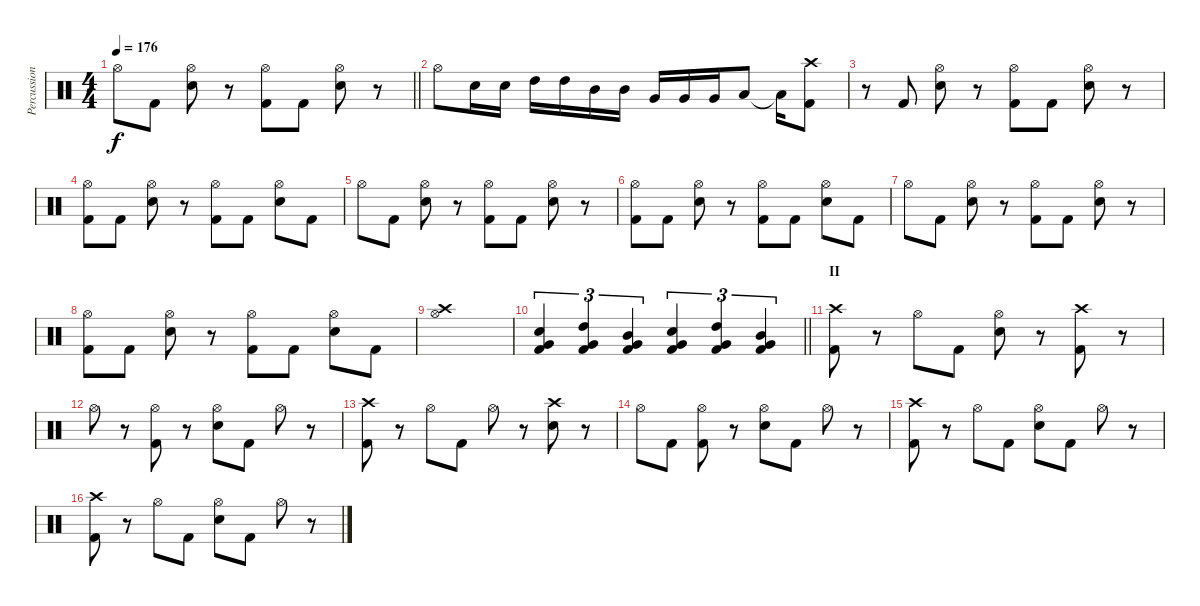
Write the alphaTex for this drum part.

\track ("Percussion" "Percussion") {instrument percussion}
\staff {score}
\articulation defaults
\ts (4 4)
\tempo 176
\clef neutral
\barLineRight lightlight
\ks c "Hi-Hat (open)".8{dy f} "Kick (hit) 2".8
("Hi-Hat (open)" "Electric Snare (hit)").8 r.8 ("Hi-Hat (open)" "Kick (hit) 2").8 "Kick (hit) 2".8 ("Hi-Hat (open)" "Electric Snare (hit)").8 r.8 |
"Hi-Hat (open)".8 "Electric Snare (hit)".16 "Electric Snare (hit)".16 "High Tom (hit)".16 "High Tom (hit)".16 "Mid Tom (hit)".16 "Mid Tom (hit)".16 "Very Low Tom (hit)".16 "Very Low Tom (hit)".16 "Very Low Tom (hit)".16 "Low Floor Tom (hit)".8 "Low Floor Tom (hit)"{t}.16 ("Crash high (hit)" "Kick (hit) 2").8 |
r.8 "Kick (hit) 2".8 ("Hi-Hat (open)" "Electric Snare (hit)").8 r.8 ("Hi-Hat (open)" "Kick (hit) 2").8 "Kick (hit) 2".8 ("Hi-Hat (open)" "Electric Snare (hit)").8 r.8 |
("Hi-Hat (open)" "Kick (hit) 2").8 "Kick (hit) 2".8 ("Hi-Hat (open)" "Electric Snare (hit)").8 r.8 ("Hi-Hat (open)" "Kick (hit) 2").8 "Kick (hit) 2".8 ("Hi-Hat (open)" "Electric Snare (hit)").8 "Kick (hit) 2".8 |
"Hi-Hat (open)".8 "Kick (hit) 2".8 ("Hi-Hat (open)" "Electric Snare (hit)").8 r.8 ("Hi-Hat (open)" "Kick (hit) 2").8 "Kick (hit) 2".8 ("Hi-Hat (open)" "Electric Snare (hit)").8 r.8 |
("Hi-Hat (open)" "Kick (hit) 2").8 "Kick (hit) 2".8 ("Hi-Hat (open)" "Electric Snare (hit)").8 r.8 ("Hi-Hat (open)" "Kick (hit) 2").8 "Kick (hit) 2".8 ("Hi-Hat (open)" "Electric Snare (hit)").8 "Kick (hit) 2".8 |
"Hi-Hat (open)".8 "Kick (hit) 2".8 ("Hi-Hat (open)" "Electric Snare (hit)").8 r.8 ("Hi-Hat (open)" "Kick (hit) 2").8 "Kick (hit) 2".8 ("Hi-Hat (open)" "Electric Snare (hit)").8 r.8 |
("Hi-Hat (open)" "Kick (hit) 2").8 "Kick (hit) 2".8 ("Hi-Hat (open)" "Electric Snare (hit)").8 r.8 ("Hi-Hat (open)" "Kick (hit) 2").8 "Kick (hit) 2".8 ("Hi-Hat (open)" "Electric Snare (hit)").8 "Kick (hit) 2".8 |
("Crash high (hit)" "Hi-Hat (open)").1 |
\barLineRight lightlight
("Electric Snare (hit)" "Very Low Tom (hit)" "Kick (hit) 2").4{tu (3 2)} ("High Tom (hit)" "Very Low Tom (hit)" "Kick (hit) 2").4{tu (3 2)} ("Mid Tom (hit)" "Very Low Tom (hit)" "Kick (hit) 2").4{tu (3 2)} ("Electric Snare (hit)" "Very Low Tom (hit)" "Kick (hit) 2").4{tu (3 2)} ("High Tom (hit)" "Very Low Tom (hit)" "Kick (hit) 2").4{tu (3 2)} ("Mid Tom (hit)" "Very Low Tom (hit)" "Kick (hit) 2").4{tu (3 2)} |
\section ("" "II")
("Crash high (hit)" "Kick (hit) 2").8 r.8 "Hi-Hat (open)".8 "Kick (hit) 2".8 ("Hi-Hat (open)" "Electric Snare (hit)").8 r.8 ("Crash high (hit)" "Kick (hit) 2").8 r.8 |
"Hi-Hat (open)".8 r.8 ("Hi-Hat (open)" "Kick (hit) 2").8 r.8 ("Hi-Hat (open)" "Electric Snare (hit)").8 "Kick (hit) 2".8 "Hi-Hat (open)".8 r.8 |
("Crash high (hit)" "Kick (hit) 2").8 r.8 "Hi-Hat (open)".8 "Kick (hit) 2".8 "Hi-Hat (open)".8 r.8 ("Crash high (hit)" "Electric Snare (hit)").8 r.8 |
"Hi-Hat (open)".8 "Kick (hit) 2".8 ("Hi-Hat (open)" "Kick (hit) 2").8 r.8 ("Hi-Hat (open)" "Electric Snare (hit)").8 "Kick (hit) 2".8 "Hi-Hat (open)".8 r.8 |
("Crash high (hit)" "Kick (hit) 2").8 r.8 "Hi-Hat (open)".8 "Kick (hit) 2".8 ("Hi-Hat (open)" "Electric Snare (hit)").8 "Kick (hit) 2".8 "Hi-Hat (open)".8 r.8 |
("Crash high (hit)" "Kick (hit) 2").8 r.8 "Hi-Hat (open)".8 "Kick (hit) 2".8 ("Hi-Hat (open)" "Electric Snare (hit)").8 "Kick (hit) 2".8 "Hi-Hat (open)".8 r.8
